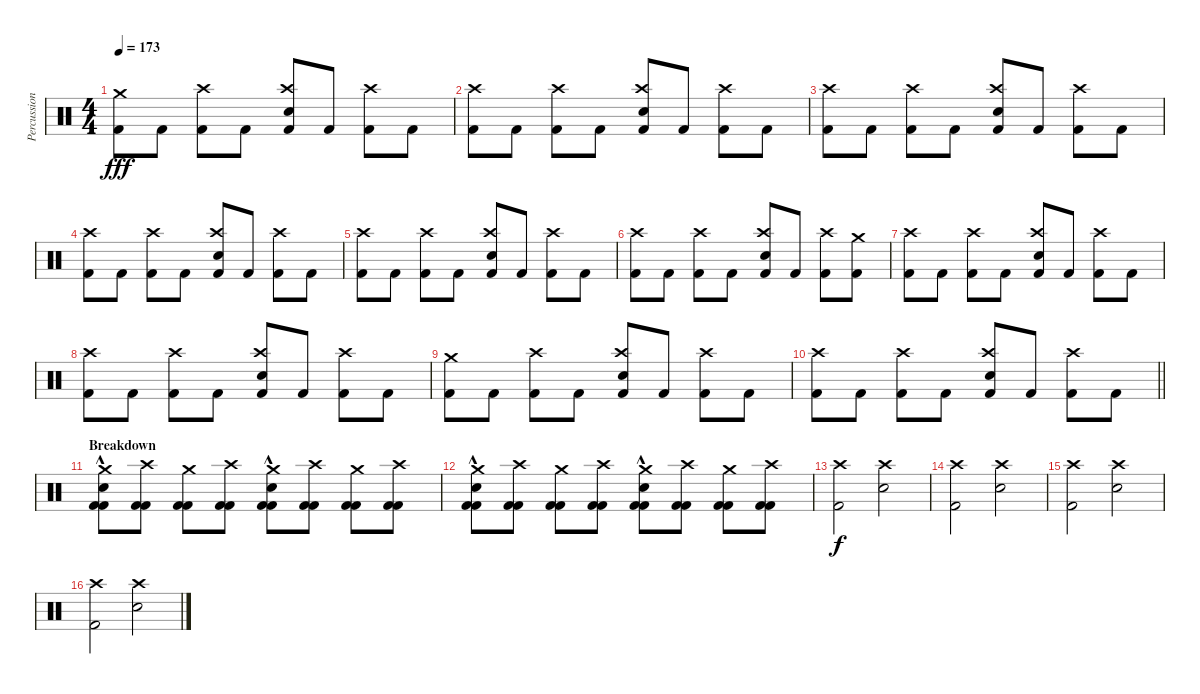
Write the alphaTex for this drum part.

\track ("Percussion" "Percussion") {instrument percussion}
\staff {score}
\articulation defaults
\ts (4 4)
\tempo 173
\clef neutral
\ks c
("Crash medium (hit)" "Kick (hit) 2").8{dy fff} "Kick (hit) 2".8 ("Crash high (hit)" "Kick (hit) 2").8 "Kick (hit) 2".8 ("Crash high (hit)" "Electric Snare (hit)" "Kick (hit) 2").8 "Kick (hit) 2".8 ("Crash high (hit)" "Kick (hit) 2").8 "Kick (hit) 2".8 |
("Crash high (hit)" "Kick (hit) 2").8 "Kick (hit) 2".8 ("Crash high (hit)" "Kick (hit) 2").8 "Kick (hit) 2".8 ("Crash high (hit)" "Electric Snare (hit)" "Kick (hit) 2").8 "Kick (hit) 2".8 ("Crash high (hit)" "Kick (hit) 2").8 "Kick (hit) 2".8 |
("Crash high (hit)" "Kick (hit) 2").8 "Kick (hit) 2".8 ("Crash high (hit)" "Kick (hit) 2").8 "Kick (hit) 2".8 ("Crash high (hit)" "Electric Snare (hit)" "Kick (hit) 2").8 "Kick (hit) 2".8 ("Crash high (hit)" "Kick (hit) 2").8 "Kick (hit) 2".8 |
("Crash high (hit)" "Kick (hit) 2").8 "Kick (hit) 2".8 ("Crash high (hit)" "Kick (hit) 2").8 "Kick (hit) 2".8 ("Crash high (hit)" "Electric Snare (hit)" "Kick (hit) 2").8 "Kick (hit) 2".8 ("Crash high (hit)" "Kick (hit) 2").8 "Kick (hit) 2".8 |
("Crash high (hit)" "Kick (hit) 2").8 "Kick (hit) 2".8 ("Crash high (hit)" "Kick (hit) 2").8 "Kick (hit) 2".8 ("Crash high (hit)" "Electric Snare (hit)" "Kick (hit) 2").8 "Kick (hit) 2".8 ("Crash high (hit)" "Kick (hit) 2").8 "Kick (hit) 2".8 |
("Crash high (hit)" "Kick (hit) 2").8 "Kick (hit) 2".8 ("Crash high (hit)" "Kick (hit) 2").8 "Kick (hit) 2".8 ("Crash high (hit)" "Electric Snare (hit)" "Kick (hit) 2").8 "Kick (hit) 2".8 ("Crash high (hit)" "Kick (hit) 2").8 ("Crash medium (hit)" "Kick (hit) 2").8 |
("Crash high (hit)" "Kick (hit) 2").8 "Kick (hit) 2".8 ("Crash high (hit)" "Kick (hit) 2").8 "Kick (hit) 2".8 ("Crash high (hit)" "Electric Snare (hit)" "Kick (hit) 2").8 "Kick (hit) 2".8 ("Crash high (hit)" "Kick (hit) 2").8 "Kick (hit) 2".8 |
("Crash high (hit)" "Kick (hit) 2").8 "Kick (hit) 2".8 ("Crash high (hit)" "Kick (hit) 2").8 "Kick (hit) 2".8 ("Crash high (hit)" "Electric Snare (hit)" "Kick (hit) 2").8 "Kick (hit) 2".8 ("Crash high (hit)" "Kick (hit) 2").8 "Kick (hit) 2".8 |
("Crash medium (hit)" "Kick (hit) 2").8 "Kick (hit) 2".8 ("Crash high (hit)" "Kick (hit) 2").8 "Kick (hit) 2".8 ("Crash high (hit)" "Electric Snare (hit)" "Kick (hit) 2").8 "Kick (hit) 2".8 ("Crash high (hit)" "Kick (hit) 2").8 "Kick (hit) 2".8 |
\barLineRight lightlight
("Crash high (hit)" "Kick (hit) 2").8 "Kick (hit) 2".8 ("Crash high (hit)" "Kick (hit) 2").8 "Kick (hit) 2".8 ("Crash high (hit)" "Electric Snare (hit)" "Kick (hit) 2").8 "Kick (hit) 2".8 ("Crash high (hit)" "Kick (hit) 2").8 "Kick (hit) 2".8 |
\section ("" "Breakdown")
("Crash medium (hit)"{hac} "Electric Snare (hit)" "Kick (hit) 2" "Kick (hit) 2").8 ("Crash high (hit)" "Kick (hit) 2" "Kick (hit) 2").8 ("Crash medium (hit)" "Kick (hit) 2" "Kick (hit) 2").8 ("Crash high (hit)" "Kick (hit) 2" "Kick (hit) 2").8 ("Crash medium (hit)"{hac} "Electric Snare (hit)" "Kick (hit) 2" "Kick (hit) 2").8 ("Crash high (hit)" "Kick (hit) 2" "Kick (hit) 2").8 ("Crash medium (hit)" "Kick (hit) 2" "Kick (hit) 2").8 ("Crash high (hit)" "Kick (hit) 2" "Kick (hit) 2").8 |
("Crash medium (hit)"{hac} "Electric Snare (hit)" "Kick (hit) 2" "Kick (hit) 2").8 ("Crash high (hit)" "Kick (hit) 2" "Kick (hit) 2").8 ("Crash medium (hit)" "Kick (hit) 2" "Kick (hit) 2").8 ("Crash high (hit)" "Kick (hit) 2" "Kick (hit) 2").8 ("Crash medium (hit)"{hac} "Electric Snare (hit)" "Kick (hit) 2" "Kick (hit) 2").8 ("Crash high (hit)" "Kick (hit) 2" "Kick (hit) 2").8 ("Crash medium (hit)" "Kick (hit) 2" "Kick (hit) 2").8 ("Crash high (hit)" "Kick (hit) 2" "Kick (hit) 2").8 |
("Crash high (hit)" "Kick (hit) 2").2{dy f} ("Crash high (hit)" "Electric Snare (hit)").2 |
("Crash high (hit)" "Kick (hit) 2").2 ("Crash high (hit)" "Electric Snare (hit)").2 |
("Crash high (hit)" "Kick (hit) 2").2 ("Crash high (hit)" "Electric Snare (hit)").2 |
("Crash high (hit)" "Kick (hit) 2").2 ("Crash high (hit)" "Electric Snare (hit)").2
